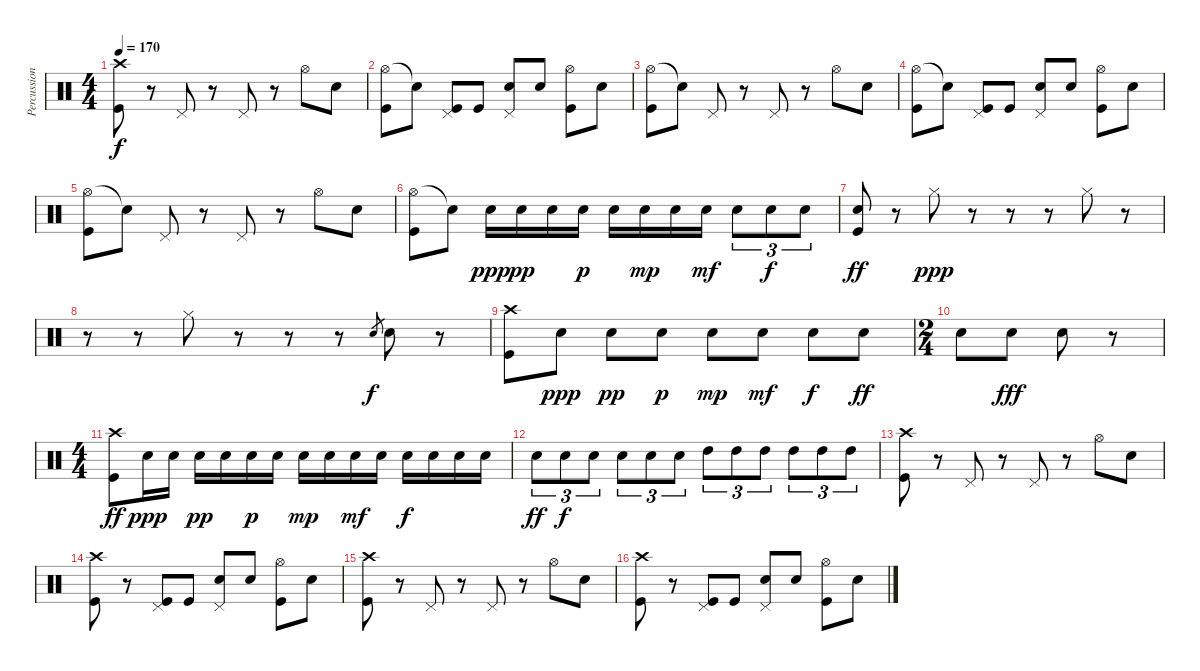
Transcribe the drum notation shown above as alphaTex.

\track ("Percussion" "Percussion") {instrument percussion}
\staff {score}
\articulation defaults
\ts (4 4)
\tempo 170
\clef neutral
\ks c
("Crash high (hit)" "Kick (hit)").8{dy f} r.8 "Pedal Hi-Hat (hit)".8 r.8 "Pedal Hi-Hat (hit)".8 r.8 "Hi-Hat (open)".8 "Snare (hit) 2".8 |
("Hi-Hat (open)" "Kick (hit)").8 "Snare (hit)"{t}.8 ("Pedal Hi-Hat (hit)" "Kick (hit)").8 "Kick (hit)".8 ("Snare (hit) 2" "Pedal Hi-Hat (hit)").8 "Snare (hit) 2".8 ("Hi-Hat (open)" "Kick (hit)").8 "Snare (hit) 2".8 |
("Hi-Hat (open)" "Kick (hit)").8 "Snare (hit)"{t}.8 "Pedal Hi-Hat (hit)".8 r.8 "Pedal Hi-Hat (hit)".8 r.8 "Hi-Hat (open)".8 "Snare (hit) 2".8 |
("Hi-Hat (open)" "Kick (hit)").8 "Snare (hit)"{t}.8 ("Pedal Hi-Hat (hit)" "Kick (hit)").8 "Kick (hit)".8 ("Snare (hit) 2" "Pedal Hi-Hat (hit)").8 "Snare (hit) 2".8 ("Hi-Hat (open)" "Kick (hit)").8 "Snare (hit) 2".8 |
("Hi-Hat (open)" "Kick (hit)").8 "Snare (hit)"{t}.8 "Pedal Hi-Hat (hit)".8 r.8 "Pedal Hi-Hat (hit)".8 r.8 "Hi-Hat (open)".8 "Snare (hit) 2".8 |
("Hi-Hat (open)" "Kick (hit)").8 "Snare (hit)"{t}.8 "Snare (hit) 2".16{dy ppp} "Snare (hit) 2".16{dy pp} "Snare (hit) 2".16 "Snare (hit) 2".16{dy p} "Snare (hit) 2".16 "Snare (hit) 2".16{dy mp} "Snare (hit) 2".16 "Snare (hit) 2".16{dy mf} "Snare (hit) 2".8{tu (3 2)} "Snare (hit) 2".8{tu (3 2) dy f} "Snare (hit) 2".8{tu (3 2)} |
("Snare (hit) 2" "Kick (hit)").8{dy ff} r.8 "Hi-Hat (closed)".8{dy ppp} r.8 r.8 r.8 "Hi-Hat (closed)".8 r.8 |
r.8 r.8 "Hi-Hat (closed)".8 r.8 r.8 r.8 "Snare (hit) 2".8{gr dy f} "Snare (hit) 2".8 r.8 |
("Crash high (hit)" "Kick (hit)").8 "Snare (hit) 2".8{dy ppp} "Snare (hit) 2".8{dy pp} "Snare (hit) 2".8{dy p} "Snare (hit) 2".8{dy mp} "Snare (hit) 2".8{dy mf} "Snare (hit) 2".8{dy f} "Snare (hit) 2".8{dy ff} |
\ts (2 4)
"Snare (hit) 2".8 "Snare (hit) 2".8{dy fff} "Snare (hit) 2".8 r.8 |
\ts (4 4)
("Crash high (hit)" "Kick (hit)").8{dy ff} "Snare (hit) 2".16{dy ppp} "Snare (hit) 2".16 "Snare (hit) 2".16{dy pp} "Snare (hit) 2".16 "Snare (hit) 2".16{dy p} "Snare (hit) 2".16 "Snare (hit) 2".16{dy mp} "Snare (hit) 2".16 "Snare (hit) 2".16{dy mf} "Snare (hit) 2".16 "Snare (hit) 2".16{dy f} "Snare (hit) 2".16 "Snare (hit) 2".16 "Snare (hit) 2".16 |
"Snare (hit) 2".8{tu (3 2) dy ff} "Snare (hit) 2".8{tu (3 2) dy f} "Snare (hit) 2".8{tu (3 2)} "Snare (hit) 2".8{tu (3 2)} "Snare (hit) 2".8{tu (3 2)} "Snare (hit) 2".8{tu (3 2)} "High Tom (hit)".8{tu (3 2)} "High Tom (hit)".8{tu (3 2)} "High Tom (hit)".8{tu (3 2)} "High Tom (hit)".8{tu (3 2)} "High Tom (hit)".8{tu (3 2)} "High Tom (hit)".8{tu (3 2)} |
("Crash high (hit)" "Kick (hit)").8 r.8 "Pedal Hi-Hat (hit)".8 r.8 "Pedal Hi-Hat (hit)".8 r.8 "Hi-Hat (open)".8 "Snare (hit) 2".8 |
("Crash high (hit)" "Kick (hit)").8 r.8 ("Pedal Hi-Hat (hit)" "Kick (hit)").8 "Kick (hit)".8 ("Snare (hit) 2" "Pedal Hi-Hat (hit)").8 "Snare (hit) 2".8 ("Hi-Hat (open)" "Kick (hit)").8 "Snare (hit) 2".8 |
("Crash high (hit)" "Kick (hit)").8 r.8 "Pedal Hi-Hat (hit)".8 r.8 "Pedal Hi-Hat (hit)".8 r.8 "Hi-Hat (open)".8 "Snare (hit) 2".8 |
("Crash high (hit)" "Kick (hit)").8 r.8 ("Pedal Hi-Hat (hit)" "Kick (hit)").8 "Kick (hit)".8 ("Snare (hit) 2" "Pedal Hi-Hat (hit)").8 "Snare (hit) 2".8 ("Hi-Hat (open)" "Kick (hit)").8 "Snare (hit) 2".8
